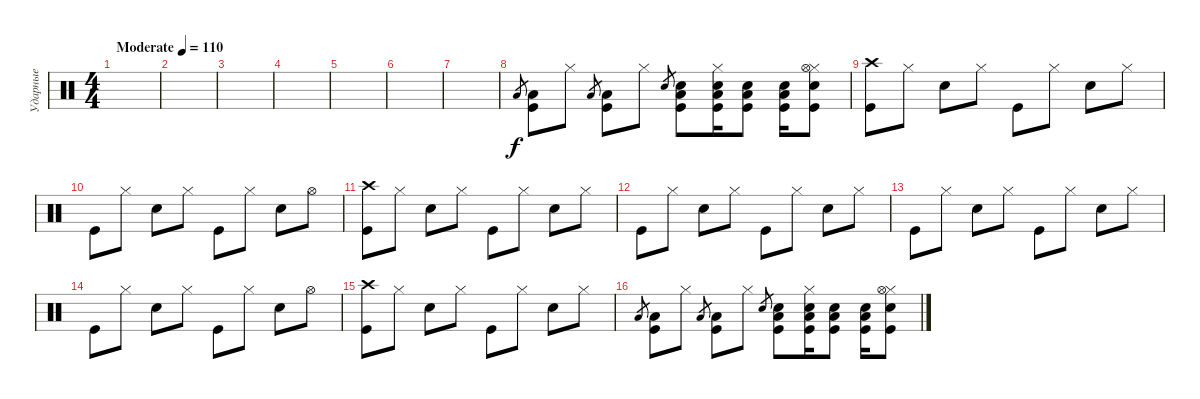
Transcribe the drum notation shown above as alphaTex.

\track ("Ударные" "Ударные") {instrument percussion}
\staff
\articulation defaults
\ts (4 4)
\tempo (110 "Moderate")
\clef neutral
\ks c
|
|
|
|
|
|
|
"Low Floor Tom (hit)".8{gr} ("Low Floor Tom (hit)" "Kick (hit)").8 "Hi-Hat (closed)".8 "Low Floor Tom (hit)".8{gr} ("Low Floor Tom (hit)" "Kick (hit)").8 "Hi-Hat (closed)".8 "Snare (hit) 2".8{gr} ("Low Floor Tom (hit)" "Snare (hit) 2" "Kick (hit)").8 ("Hi-Hat (closed)" "Low Floor Tom (hit)" "Snare (hit) 2" "Kick (hit)").16 ("Low Floor Tom (hit)" "Snare (hit) 2" "Kick (hit)").8 ("Low Floor Tom (hit)" "Snare (hit) 2" "Kick (hit)").16 ("Hi-Hat (closed)" "Hi-Hat (open)" "Snare (hit) 2" "Kick (hit)").8 |
("Crash high (hit)" "Kick (hit)").8 "Hi-Hat (closed)".8 "Snare (hit) 2".8 "Hi-Hat (closed)".8 "Kick (hit)".8 "Hi-Hat (closed)".8 "Snare (hit) 2".8 "Hi-Hat (closed)".8 |
"Kick (hit)".8 "Hi-Hat (closed)".8 "Snare (hit) 2".8 "Hi-Hat (closed)".8 "Kick (hit)".8 "Hi-Hat (closed)".8 "Snare (hit) 2".8 "Hi-Hat (open)".8 |
("Crash high (hit)" "Kick (hit)").8 "Hi-Hat (closed)".8 "Snare (hit) 2".8 "Hi-Hat (closed)".8 "Kick (hit)".8 "Hi-Hat (closed)".8 "Snare (hit) 2".8 "Hi-Hat (closed)".8 |
"Kick (hit)".8 "Hi-Hat (closed)".8 "Snare (hit) 2".8 "Hi-Hat (closed)".8 "Kick (hit)".8 "Hi-Hat (closed)".8 "Snare (hit) 2".8 "Hi-Hat (closed)".8 |
"Kick (hit)".8 "Hi-Hat (closed)".8 "Snare (hit) 2".8 "Hi-Hat (closed)".8 "Kick (hit)".8 "Hi-Hat (closed)".8 "Snare (hit) 2".8 "Hi-Hat (closed)".8 |
"Kick (hit)".8 "Hi-Hat (closed)".8 "Snare (hit) 2".8 "Hi-Hat (closed)".8 "Kick (hit)".8 "Hi-Hat (closed)".8 "Snare (hit) 2".8 "Hi-Hat (open)".8 |
("Crash high (hit)" "Kick (hit)").8 "Hi-Hat (closed)".8 "Snare (hit) 2".8 "Hi-Hat (closed)".8 "Kick (hit)".8 "Hi-Hat (closed)".8 "Snare (hit) 2".8 "Hi-Hat (closed)".8 |
"Low Floor Tom (hit)".8{gr} ("Low Floor Tom (hit)" "Kick (hit)").8 "Hi-Hat (closed)".8 "Low Floor Tom (hit)".8{gr} ("Low Floor Tom (hit)" "Kick (hit)").8 "Hi-Hat (closed)".8 "Snare (hit) 2".8{gr} ("Low Floor Tom (hit)" "Snare (hit) 2" "Kick (hit)").8 ("Hi-Hat (closed)" "Low Floor Tom (hit)" "Snare (hit) 2" "Kick (hit)").16 ("Low Floor Tom (hit)" "Snare (hit) 2" "Kick (hit)").8 ("Low Floor Tom (hit)" "Snare (hit) 2" "Kick (hit)").16 ("Hi-Hat (closed)" "Hi-Hat (open)" "Snare (hit) 2" "Kick (hit)").8
